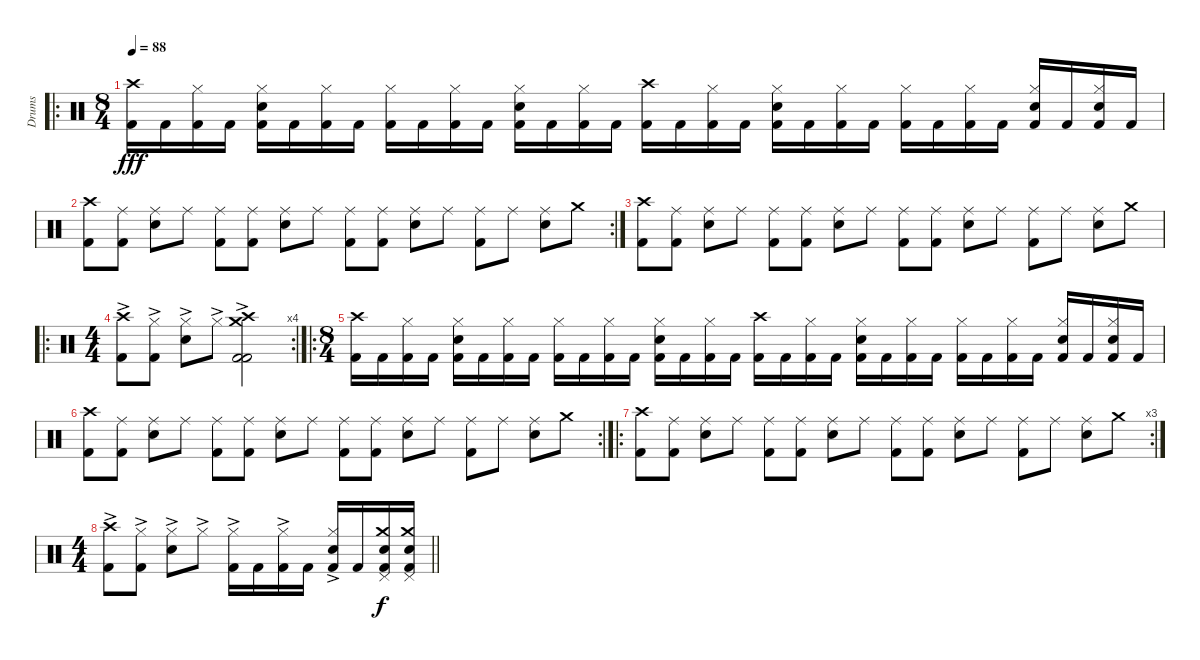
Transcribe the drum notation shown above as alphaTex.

\track ("Drums" "Drums") {instrument percussion}
\staff {score}
\articulation defaults
\ro
\ts (8 4)
\tempo 88
\clef neutral
\ks c
("Crash high (hit)" "Kick (hit) 2").16{dy fff} "Kick (hit) 2".16 ("Hi-Hat (closed)" "Kick (hit) 2").16 "Kick (hit) 2".16 ("Hi-Hat (closed)" "Electric Snare (hit)" "Kick (hit) 2").16 "Kick (hit) 2".16 ("Hi-Hat (closed)" "Kick (hit) 2").16 "Kick (hit) 2".16 ("Hi-Hat (closed)" "Kick (hit) 2").16 "Kick (hit) 2".16 ("Hi-Hat (closed)" "Kick (hit) 2").16 "Kick (hit) 2".16 ("Hi-Hat (closed)" "Electric Snare (hit)" "Kick (hit) 2").16 "Kick (hit) 2".16 ("Hi-Hat (closed)" "Kick (hit) 2").16 "Kick (hit) 2".16 ("Crash high (hit)" "Kick (hit) 2").16 "Kick (hit) 2".16 ("Hi-Hat (closed)" "Kick (hit) 2").16 "Kick (hit) 2".16 ("Hi-Hat (closed)" "Electric Snare (hit)" "Kick (hit) 2").16 "Kick (hit) 2".16 ("Hi-Hat (closed)" "Kick (hit) 2").16 "Kick (hit) 2".16 ("Hi-Hat (closed)" "Kick (hit) 2").16 "Kick (hit) 2".16 ("Hi-Hat (closed)" "Kick (hit) 2").16 "Kick (hit) 2".16 ("Hi-Hat (closed)" "Electric Snare (hit)" "Kick (hit) 2").16 "Kick (hit) 2".16 ("Hi-Hat (closed)" "Electric Snare (hit)" "Kick (hit) 2").16 "Kick (hit) 2".16 |
\rc 2
("Crash high (hit)" "Kick (hit) 2").8 ("Ride (middle)" "Kick (hit) 2").8 ("Ride (middle)" "Electric Snare (hit)").8 "Ride (middle)".8 ("Ride (middle)" "Kick (hit) 2").8 ("Ride (middle)" "Kick (hit) 2").8 ("Ride (middle)" "Electric Snare (hit)").8 "Ride (middle)".8 ("Ride (middle)" "Kick (hit) 2").8 ("Ride (middle)" "Kick (hit) 2").8 ("Ride (middle)" "Electric Snare (hit)").8 "Ride (middle)".8 ("Ride (middle)" "Kick (hit) 2").8 "Ride (middle)".8 ("Ride (middle)" "Electric Snare (hit)").8 "Crash medium (hit)".8 |
("Crash high (hit)" "Kick (hit) 2").8 ("Ride (middle)" "Kick (hit) 2").8 ("Ride (middle)" "Electric Snare (hit)").8 "Ride (middle)".8 ("Ride (middle)" "Kick (hit) 2").8 ("Ride (middle)" "Kick (hit) 2").8 ("Ride (middle)" "Electric Snare (hit)").8 "Ride (middle)".8 ("Ride (middle)" "Kick (hit) 2").8 ("Ride (middle)" "Kick (hit) 2").8 ("Ride (middle)" "Electric Snare (hit)").8 "Ride (middle)".8 ("Ride (middle)" "Kick (hit) 2").8 "Ride (middle)".8 ("Ride (middle)" "Electric Snare (hit)").8 "Crash medium (hit)".8 |
\ro
\rc 4
\ts (4 4)
("Crash high (hit)"{ac} "Kick (hit) 2").8 ("Hi-Hat (closed)"{ac} "Kick (hit) 2").8 ("Hi-Hat (closed)"{ac} "Electric Snare (hit)").8 "Hi-Hat (closed)"{ac}.8 ("Crash high (hit)"{ac} "Crash medium (hit)"{ac} "Kick (hit) 2"{ac} "Kick (hit) 2"{ac}).2 |
\ro
\ts (8 4)
("Crash high (hit)" "Kick (hit) 2").16 "Kick (hit) 2".16 ("Hi-Hat (closed)" "Kick (hit) 2").16 "Kick (hit) 2".16 ("Hi-Hat (closed)" "Electric Snare (hit)" "Kick (hit) 2").16 "Kick (hit) 2".16 ("Hi-Hat (closed)" "Kick (hit) 2").16 "Kick (hit) 2".16 ("Hi-Hat (closed)" "Kick (hit) 2").16 "Kick (hit) 2".16 ("Hi-Hat (closed)" "Kick (hit) 2").16 "Kick (hit) 2".16 ("Hi-Hat (closed)" "Electric Snare (hit)" "Kick (hit) 2").16 "Kick (hit) 2".16 ("Hi-Hat (closed)" "Kick (hit) 2").16 "Kick (hit) 2".16 ("Crash high (hit)" "Kick (hit) 2").16 "Kick (hit) 2".16 ("Hi-Hat (closed)" "Kick (hit) 2").16 "Kick (hit) 2".16 ("Hi-Hat (closed)" "Electric Snare (hit)" "Kick (hit) 2").16 "Kick (hit) 2".16 ("Hi-Hat (closed)" "Kick (hit) 2").16 "Kick (hit) 2".16 ("Hi-Hat (closed)" "Kick (hit) 2").16 "Kick (hit) 2".16 ("Hi-Hat (closed)" "Kick (hit) 2").16 "Kick (hit) 2".16 ("Hi-Hat (closed)" "Electric Snare (hit)" "Kick (hit) 2").16 "Kick (hit) 2".16 ("Hi-Hat (closed)" "Electric Snare (hit)" "Kick (hit) 2").16 "Kick (hit) 2".16 |
\rc 2
("Crash high (hit)" "Kick (hit) 2").8 ("Ride (middle)" "Kick (hit) 2").8 ("Ride (middle)" "Electric Snare (hit)").8 "Ride (middle)".8 ("Ride (middle)" "Kick (hit) 2").8 ("Ride (middle)" "Kick (hit) 2").8 ("Ride (middle)" "Electric Snare (hit)").8 "Ride (middle)".8 ("Ride (middle)" "Kick (hit) 2").8 ("Ride (middle)" "Kick (hit) 2").8 ("Ride (middle)" "Electric Snare (hit)").8 "Ride (middle)".8 ("Ride (middle)" "Kick (hit) 2").8 "Ride (middle)".8 ("Ride (middle)" "Electric Snare (hit)").8 "Crash medium (hit)".8 |
\ro
\rc 3
("Crash high (hit)" "Kick (hit) 2").8 ("Ride (middle)" "Kick (hit) 2").8 ("Ride (middle)" "Electric Snare (hit)").8 "Ride (middle)".8 ("Ride (middle)" "Kick (hit) 2").8 ("Ride (middle)" "Kick (hit) 2").8 ("Ride (middle)" "Electric Snare (hit)").8 "Ride (middle)".8 ("Ride (middle)" "Kick (hit) 2").8 ("Ride (middle)" "Kick (hit) 2").8 ("Ride (middle)" "Electric Snare (hit)").8 "Ride (middle)".8 ("Ride (middle)" "Kick (hit) 2").8 "Ride (middle)".8 ("Ride (middle)" "Electric Snare (hit)").8 "Crash medium (hit)".8 |
\ts (4 4)
\barLineRight lightlight
("Crash high (hit)"{ac} "Kick (hit) 2").8 ("Hi-Hat (closed)"{ac} "Kick (hit) 2").8 ("Hi-Hat (closed)"{ac} "Electric Snare (hit)").8 "Hi-Hat (closed)"{ac}.8 ("Hi-Hat (closed)"{ac} "Kick (hit) 2").16 "Kick (hit) 2".16 ("Hi-Hat (closed)"{ac} "Kick (hit) 2").16 "Kick (hit) 2".16 ("Hi-Hat (closed)"{ac} "Electric Snare (hit)" "Kick (hit) 2").16 "Kick (hit) 2".16 ("Crash medium (hit)" "Electric Snare (hit)" "Pedal Hi-Hat (hit)" "Kick (hit) 2").16{dy f} ("Crash medium (hit)" "Electric Snare (hit)" "Pedal Hi-Hat (hit)" "Kick (hit) 2").16
